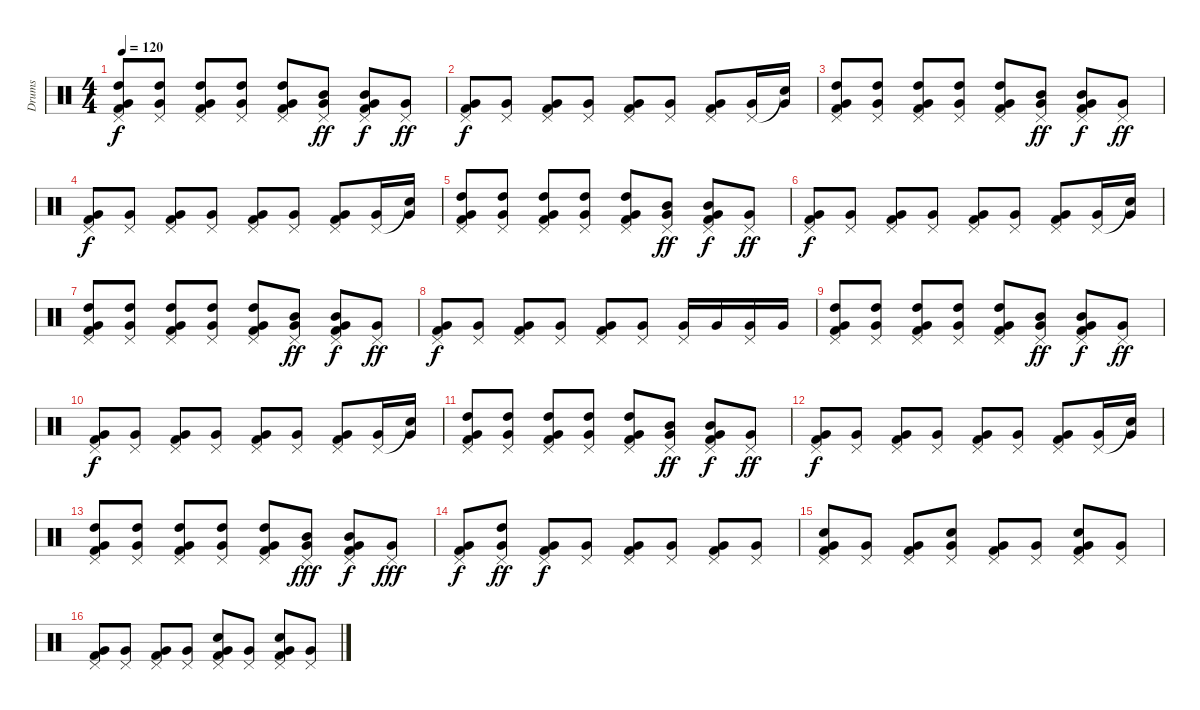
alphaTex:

\track ("Drums" "Drums") {instrument percussion}
\staff {score}
\articulation defaults
\ts (4 4)
\tempo 120
\clef neutral
\ks c
("Pedal Hi-Hat (hit)" "High Tom (hit)" "Very Low Tom (hit)" "Kick (hit) 2").8{dy f} ("Pedal Hi-Hat (hit)" "High Tom (hit)" "Very Low Tom (hit)").8 ("Pedal Hi-Hat (hit)" "High Tom (hit)" "Very Low Tom (hit)" "Kick (hit) 2").8 ("Pedal Hi-Hat (hit)" "High Tom (hit)" "Very Low Tom (hit)").8 ("Pedal Hi-Hat (hit)" "High Tom (hit)" "Very Low Tom (hit)" "Kick (hit) 2").8 ("Pedal Hi-Hat (hit)" "Mid Tom (hit)" "Very Low Tom (hit)").8{dy ff} ("Pedal Hi-Hat (hit)" "Mid Tom (hit)" "Very Low Tom (hit)" "Kick (hit) 2").8{dy f} ("Pedal Hi-Hat (hit)" "Very Low Tom (hit)").8{dy ff} |
("Pedal Hi-Hat (hit)" "Very Low Tom (hit)" "Kick (hit) 2").8{dy f} ("Pedal Hi-Hat (hit)" "Very Low Tom (hit)").8 ("Pedal Hi-Hat (hit)" "Very Low Tom (hit)" "Kick (hit) 2").8 ("Pedal Hi-Hat (hit)" "Very Low Tom (hit)").8 ("Pedal Hi-Hat (hit)" "Very Low Tom (hit)" "Kick (hit) 2").8 ("Pedal Hi-Hat (hit)" "Very Low Tom (hit)").8 ("Pedal Hi-Hat (hit)" "Very Low Tom (hit)" "Kick (hit) 2").8 ("Pedal Hi-Hat (hit)" "Very Low Tom (hit)").16 ("Snare (hit)"{t} "Very Low Tom (hit)").16 |
("Pedal Hi-Hat (hit)" "High Tom (hit)" "Very Low Tom (hit)" "Kick (hit) 2").8 ("Pedal Hi-Hat (hit)" "High Tom (hit)" "Very Low Tom (hit)").8 ("Pedal Hi-Hat (hit)" "High Tom (hit)" "Very Low Tom (hit)" "Kick (hit) 2").8 ("Pedal Hi-Hat (hit)" "High Tom (hit)" "Very Low Tom (hit)").8 ("Pedal Hi-Hat (hit)" "High Tom (hit)" "Very Low Tom (hit)" "Kick (hit) 2").8 ("Pedal Hi-Hat (hit)" "Mid Tom (hit)" "Very Low Tom (hit)").8{dy ff} ("Pedal Hi-Hat (hit)" "Mid Tom (hit)" "Very Low Tom (hit)" "Kick (hit) 2").8{dy f} ("Pedal Hi-Hat (hit)" "Very Low Tom (hit)").8{dy ff} |
("Pedal Hi-Hat (hit)" "Very Low Tom (hit)" "Kick (hit) 2").8{dy f} ("Pedal Hi-Hat (hit)" "Very Low Tom (hit)").8 ("Pedal Hi-Hat (hit)" "Very Low Tom (hit)" "Kick (hit) 2").8 ("Pedal Hi-Hat (hit)" "Very Low Tom (hit)").8 ("Pedal Hi-Hat (hit)" "Very Low Tom (hit)" "Kick (hit) 2").8 ("Pedal Hi-Hat (hit)" "Very Low Tom (hit)").8 ("Pedal Hi-Hat (hit)" "Very Low Tom (hit)" "Kick (hit) 2").8 ("Pedal Hi-Hat (hit)" "Very Low Tom (hit)").16 ("Snare (hit)"{t} "Very Low Tom (hit)").16 |
("Pedal Hi-Hat (hit)" "High Tom (hit)" "Very Low Tom (hit)" "Kick (hit) 2").8 ("Pedal Hi-Hat (hit)" "High Tom (hit)" "Very Low Tom (hit)").8 ("Pedal Hi-Hat (hit)" "High Tom (hit)" "Very Low Tom (hit)" "Kick (hit) 2").8 ("Pedal Hi-Hat (hit)" "High Tom (hit)" "Very Low Tom (hit)").8 ("Pedal Hi-Hat (hit)" "High Tom (hit)" "Very Low Tom (hit)" "Kick (hit) 2").8 ("Pedal Hi-Hat (hit)" "Mid Tom (hit)" "Very Low Tom (hit)").8{dy ff} ("Pedal Hi-Hat (hit)" "Mid Tom (hit)" "Very Low Tom (hit)" "Kick (hit) 2").8{dy f} ("Pedal Hi-Hat (hit)" "Very Low Tom (hit)").8{dy ff} |
("Pedal Hi-Hat (hit)" "Very Low Tom (hit)" "Kick (hit) 2").8{dy f} ("Pedal Hi-Hat (hit)" "Very Low Tom (hit)").8 ("Pedal Hi-Hat (hit)" "Very Low Tom (hit)" "Kick (hit) 2").8 ("Pedal Hi-Hat (hit)" "Very Low Tom (hit)").8 ("Pedal Hi-Hat (hit)" "Very Low Tom (hit)" "Kick (hit) 2").8 ("Pedal Hi-Hat (hit)" "Very Low Tom (hit)").8 ("Pedal Hi-Hat (hit)" "Very Low Tom (hit)" "Kick (hit) 2").8 ("Pedal Hi-Hat (hit)" "Very Low Tom (hit)").16 ("Snare (hit)"{t} "Very Low Tom (hit)").16 |
("Pedal Hi-Hat (hit)" "High Tom (hit)" "Very Low Tom (hit)" "Kick (hit) 2").8 ("Pedal Hi-Hat (hit)" "High Tom (hit)" "Very Low Tom (hit)").8 ("Pedal Hi-Hat (hit)" "High Tom (hit)" "Very Low Tom (hit)" "Kick (hit) 2").8 ("Pedal Hi-Hat (hit)" "High Tom (hit)" "Very Low Tom (hit)").8 ("Pedal Hi-Hat (hit)" "High Tom (hit)" "Very Low Tom (hit)" "Kick (hit) 2").8 ("Pedal Hi-Hat (hit)" "Mid Tom (hit)" "Very Low Tom (hit)").8{dy ff} ("Pedal Hi-Hat (hit)" "Mid Tom (hit)" "Very Low Tom (hit)" "Kick (hit) 2").8{dy f} ("Pedal Hi-Hat (hit)" "Very Low Tom (hit)").8{dy ff} |
("Pedal Hi-Hat (hit)" "Very Low Tom (hit)" "Kick (hit) 2").8{dy f} ("Pedal Hi-Hat (hit)" "Very Low Tom (hit)").8 ("Pedal Hi-Hat (hit)" "Very Low Tom (hit)" "Kick (hit) 2").8 ("Pedal Hi-Hat (hit)" "Very Low Tom (hit)").8 ("Pedal Hi-Hat (hit)" "Very Low Tom (hit)" "Kick (hit) 2").8 ("Pedal Hi-Hat (hit)" "Very Low Tom (hit)").8 ("Pedal Hi-Hat (hit)" "Very Low Tom (hit)").16 "Very Low Tom (hit)".16 ("Pedal Hi-Hat (hit)" "Very Low Tom (hit)").16 "Very Low Tom (hit)".16 |
("Pedal Hi-Hat (hit)" "High Tom (hit)" "Very Low Tom (hit)" "Kick (hit) 2").8 ("Pedal Hi-Hat (hit)" "High Tom (hit)" "Very Low Tom (hit)").8 ("Pedal Hi-Hat (hit)" "High Tom (hit)" "Very Low Tom (hit)" "Kick (hit) 2").8 ("Pedal Hi-Hat (hit)" "High Tom (hit)" "Very Low Tom (hit)").8 ("Pedal Hi-Hat (hit)" "High Tom (hit)" "Very Low Tom (hit)" "Kick (hit) 2").8 ("Pedal Hi-Hat (hit)" "Mid Tom (hit)" "Very Low Tom (hit)").8{dy ff} ("Pedal Hi-Hat (hit)" "Mid Tom (hit)" "Very Low Tom (hit)" "Kick (hit) 2").8{dy f} ("Pedal Hi-Hat (hit)" "Very Low Tom (hit)").8{dy ff} |
("Pedal Hi-Hat (hit)" "Very Low Tom (hit)" "Kick (hit) 2").8{dy f} ("Pedal Hi-Hat (hit)" "Very Low Tom (hit)").8 ("Pedal Hi-Hat (hit)" "Very Low Tom (hit)" "Kick (hit) 2").8 ("Pedal Hi-Hat (hit)" "Very Low Tom (hit)").8 ("Pedal Hi-Hat (hit)" "Very Low Tom (hit)" "Kick (hit) 2").8 ("Pedal Hi-Hat (hit)" "Very Low Tom (hit)").8 ("Pedal Hi-Hat (hit)" "Very Low Tom (hit)" "Kick (hit) 2").8 ("Pedal Hi-Hat (hit)" "Very Low Tom (hit)").16 ("Snare (hit)"{t} "Very Low Tom (hit)").16 |
("Pedal Hi-Hat (hit)" "High Tom (hit)" "Very Low Tom (hit)" "Kick (hit) 2").8 ("Pedal Hi-Hat (hit)" "High Tom (hit)" "Very Low Tom (hit)").8 ("Pedal Hi-Hat (hit)" "High Tom (hit)" "Very Low Tom (hit)" "Kick (hit) 2").8 ("Pedal Hi-Hat (hit)" "High Tom (hit)" "Very Low Tom (hit)").8 ("Pedal Hi-Hat (hit)" "High Tom (hit)" "Very Low Tom (hit)" "Kick (hit) 2").8 ("Pedal Hi-Hat (hit)" "Mid Tom (hit)" "Very Low Tom (hit)").8{dy ff} ("Pedal Hi-Hat (hit)" "Mid Tom (hit)" "Very Low Tom (hit)" "Kick (hit) 2").8{dy f} ("Pedal Hi-Hat (hit)" "Very Low Tom (hit)").8{dy ff} |
("Pedal Hi-Hat (hit)" "Very Low Tom (hit)" "Kick (hit) 2").8{dy f} ("Pedal Hi-Hat (hit)" "Very Low Tom (hit)").8 ("Pedal Hi-Hat (hit)" "Very Low Tom (hit)" "Kick (hit) 2").8 ("Pedal Hi-Hat (hit)" "Very Low Tom (hit)").8 ("Pedal Hi-Hat (hit)" "Very Low Tom (hit)" "Kick (hit) 2").8 ("Pedal Hi-Hat (hit)" "Very Low Tom (hit)").8 ("Pedal Hi-Hat (hit)" "Very Low Tom (hit)" "Kick (hit) 2").8 ("Pedal Hi-Hat (hit)" "Very Low Tom (hit)").16 ("Snare (hit)"{t} "Very Low Tom (hit)").16 |
("Pedal Hi-Hat (hit)" "High Tom (hit)" "Very Low Tom (hit)" "Kick (hit) 2").8 ("Pedal Hi-Hat (hit)" "High Tom (hit)" "Very Low Tom (hit)").8 ("Pedal Hi-Hat (hit)" "High Tom (hit)" "Very Low Tom (hit)" "Kick (hit) 2").8 ("Pedal Hi-Hat (hit)" "High Tom (hit)" "Very Low Tom (hit)").8 ("Pedal Hi-Hat (hit)" "High Tom (hit)" "Very Low Tom (hit)" "Kick (hit) 2").8 ("Pedal Hi-Hat (hit)" "Mid Tom (hit)" "Very Low Tom (hit)").8{dy fff} ("Pedal Hi-Hat (hit)" "Mid Tom (hit)" "Very Low Tom (hit)" "Kick (hit) 2").8{dy f} ("Pedal Hi-Hat (hit)" "Very Low Tom (hit)").8{dy fff} |
("Pedal Hi-Hat (hit)" "Very Low Tom (hit)" "Kick (hit) 2").8{dy f} ("Pedal Hi-Hat (hit)" "High Tom (hit)" "Very Low Tom (hit)").8{dy ff} ("Pedal Hi-Hat (hit)" "Very Low Tom (hit)" "Kick (hit) 2").8{dy f} ("Pedal Hi-Hat (hit)" "Very Low Tom (hit)").8 ("Pedal Hi-Hat (hit)" "Very Low Tom (hit)" "Kick (hit) 2").8 ("Pedal Hi-Hat (hit)" "Very Low Tom (hit)").8 ("Pedal Hi-Hat (hit)" "Very Low Tom (hit)" "Kick (hit) 2").8 ("Pedal Hi-Hat (hit)" "Very Low Tom (hit)").8 |
("Pedal Hi-Hat (hit)" "Electric Snare (hit)" "Very Low Tom (hit)" "Kick (hit) 2").8 ("Pedal Hi-Hat (hit)" "Very Low Tom (hit)").8 ("Pedal Hi-Hat (hit)" "Very Low Tom (hit)" "Kick (hit) 2").8 ("Pedal Hi-Hat (hit)" "Electric Snare (hit)" "Very Low Tom (hit)").8 ("Pedal Hi-Hat (hit)" "Very Low Tom (hit)" "Kick (hit) 2").8 ("Pedal Hi-Hat (hit)" "Very Low Tom (hit)").8 ("Pedal Hi-Hat (hit)" "Electric Snare (hit)" "Very Low Tom (hit)" "Kick (hit) 2").8 ("Pedal Hi-Hat (hit)" "Very Low Tom (hit)").8 |
("Pedal Hi-Hat (hit)" "Very Low Tom (hit)" "Kick (hit) 2").8 ("Pedal Hi-Hat (hit)" "Very Low Tom (hit)").8 ("Pedal Hi-Hat (hit)" "Very Low Tom (hit)" "Kick (hit) 2").8 ("Pedal Hi-Hat (hit)" "Very Low Tom (hit)").8 ("Pedal Hi-Hat (hit)" "Electric Snare (hit)" "Very Low Tom (hit)" "Kick (hit) 2").8 ("Pedal Hi-Hat (hit)" "Very Low Tom (hit)").8 ("Pedal Hi-Hat (hit)" "Electric Snare (hit)" "Very Low Tom (hit)" "Kick (hit) 2").8 ("Pedal Hi-Hat (hit)" "Very Low Tom (hit)").8
